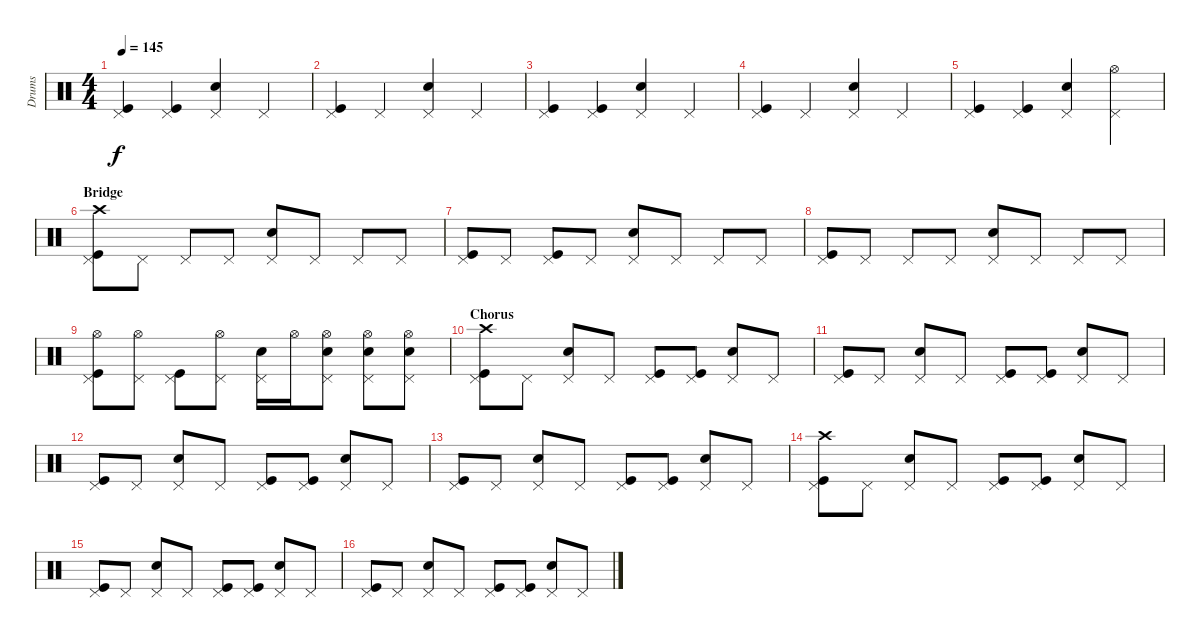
\track ("Drums" "Drums") {instrument percussion}
\staff {score}
\articulation defaults
\ts (4 4)
\tempo 145
\clef neutral
\ks c
("Pedal Hi-Hat (hit)" "Kick (hit)").4{dy f} ("Pedal Hi-Hat (hit)" "Kick (hit)").4 ("Pedal Hi-Hat (hit)" "Snare (hit) 2").4 "Pedal Hi-Hat (hit)".4 |
("Pedal Hi-Hat (hit)" "Kick (hit)").4 "Pedal Hi-Hat (hit)".4 ("Pedal Hi-Hat (hit)" "Snare (hit) 2").4 "Pedal Hi-Hat (hit)".4 |
("Pedal Hi-Hat (hit)" "Kick (hit)").4 ("Pedal Hi-Hat (hit)" "Kick (hit)").4 ("Pedal Hi-Hat (hit)" "Snare (hit) 2").4 "Pedal Hi-Hat (hit)".4 |
("Pedal Hi-Hat (hit)" "Kick (hit)").4 "Pedal Hi-Hat (hit)".4 ("Pedal Hi-Hat (hit)" "Snare (hit) 2").4 "Pedal Hi-Hat (hit)".4 |
("Pedal Hi-Hat (hit)" "Kick (hit)").4 ("Pedal Hi-Hat (hit)" "Kick (hit)").4 ("Pedal Hi-Hat (hit)" "Snare (hit) 2").4 ("Pedal Hi-Hat (hit)" "Hi-Hat (open)").4 |
\section ("" "Bridge")
("Crash high (hit)" "Pedal Hi-Hat (hit)" "Kick (hit)").8 "Pedal Hi-Hat (hit)".8 "Pedal Hi-Hat (hit)".8 "Pedal Hi-Hat (hit)".8 ("Pedal Hi-Hat (hit)" "Snare (hit) 2").8 "Pedal Hi-Hat (hit)".8 "Pedal Hi-Hat (hit)".8 "Pedal Hi-Hat (hit)".8 |
("Pedal Hi-Hat (hit)" "Kick (hit)").8 "Pedal Hi-Hat (hit)".8 ("Pedal Hi-Hat (hit)" "Kick (hit)").8 "Pedal Hi-Hat (hit)".8 ("Pedal Hi-Hat (hit)" "Snare (hit) 2").8 "Pedal Hi-Hat (hit)".8 "Pedal Hi-Hat (hit)".8 "Pedal Hi-Hat (hit)".8 |
("Pedal Hi-Hat (hit)" "Kick (hit)").8 "Pedal Hi-Hat (hit)".8 "Pedal Hi-Hat (hit)".8 "Pedal Hi-Hat (hit)".8 ("Pedal Hi-Hat (hit)" "Snare (hit) 2").8 "Pedal Hi-Hat (hit)".8 "Pedal Hi-Hat (hit)".8 "Pedal Hi-Hat (hit)".8 |
("Pedal Hi-Hat (hit)" "Hi-Hat (open)" "Kick (hit)").8 ("Pedal Hi-Hat (hit)" "Hi-Hat (open)").8 ("Pedal Hi-Hat (hit)" "Kick (hit)").8 ("Pedal Hi-Hat (hit)" "Hi-Hat (open)").8 ("Pedal Hi-Hat (hit)" "Snare (hit) 2").16 "Hi-Hat (open)".16 ("Pedal Hi-Hat (hit)" "Snare (hit) 2" "Hi-Hat (open)").8 ("Pedal Hi-Hat (hit)" "Snare (hit) 2" "Hi-Hat (open)").8 ("Pedal Hi-Hat (hit)" "Snare (hit) 2" "Hi-Hat (open)").8 |
\section ("" "Chorus")
("Crash high (hit)" "Pedal Hi-Hat (hit)" "Kick (hit)").8 "Pedal Hi-Hat (hit)".8 ("Pedal Hi-Hat (hit)" "Snare (hit) 2").8 "Pedal Hi-Hat (hit)".8 ("Pedal Hi-Hat (hit)" "Kick (hit)").8 ("Pedal Hi-Hat (hit)" "Kick (hit)").8 ("Pedal Hi-Hat (hit)" "Snare (hit) 2").8 "Pedal Hi-Hat (hit)".8 |
("Pedal Hi-Hat (hit)" "Kick (hit)").8 "Pedal Hi-Hat (hit)".8 ("Pedal Hi-Hat (hit)" "Snare (hit) 2").8 "Pedal Hi-Hat (hit)".8 ("Pedal Hi-Hat (hit)" "Kick (hit)").8 ("Pedal Hi-Hat (hit)" "Kick (hit)").8 ("Pedal Hi-Hat (hit)" "Snare (hit) 2").8 "Pedal Hi-Hat (hit)".8 |
("Pedal Hi-Hat (hit)" "Kick (hit)").8 "Pedal Hi-Hat (hit)".8 ("Pedal Hi-Hat (hit)" "Snare (hit) 2").8 "Pedal Hi-Hat (hit)".8 ("Pedal Hi-Hat (hit)" "Kick (hit)").8 ("Pedal Hi-Hat (hit)" "Kick (hit)").8 ("Pedal Hi-Hat (hit)" "Snare (hit) 2").8 "Pedal Hi-Hat (hit)".8 |
("Pedal Hi-Hat (hit)" "Kick (hit)").8 "Pedal Hi-Hat (hit)".8 ("Pedal Hi-Hat (hit)" "Snare (hit) 2").8 "Pedal Hi-Hat (hit)".8 ("Pedal Hi-Hat (hit)" "Kick (hit)").8 ("Pedal Hi-Hat (hit)" "Kick (hit)").8 ("Pedal Hi-Hat (hit)" "Snare (hit) 2").8 "Pedal Hi-Hat (hit)".8 |
("Crash high (hit)" "Pedal Hi-Hat (hit)" "Kick (hit)").8 "Pedal Hi-Hat (hit)".8 ("Pedal Hi-Hat (hit)" "Snare (hit) 2").8 "Pedal Hi-Hat (hit)".8 ("Pedal Hi-Hat (hit)" "Kick (hit)").8 ("Pedal Hi-Hat (hit)" "Kick (hit)").8 ("Pedal Hi-Hat (hit)" "Snare (hit) 2").8 "Pedal Hi-Hat (hit)".8 |
("Pedal Hi-Hat (hit)" "Kick (hit)").8 "Pedal Hi-Hat (hit)".8 ("Pedal Hi-Hat (hit)" "Snare (hit) 2").8 "Pedal Hi-Hat (hit)".8 ("Pedal Hi-Hat (hit)" "Kick (hit)").8 ("Pedal Hi-Hat (hit)" "Kick (hit)").8 ("Pedal Hi-Hat (hit)" "Snare (hit) 2").8 "Pedal Hi-Hat (hit)".8 |
("Pedal Hi-Hat (hit)" "Kick (hit)").8 "Pedal Hi-Hat (hit)".8 ("Pedal Hi-Hat (hit)" "Snare (hit) 2").8 "Pedal Hi-Hat (hit)".8 ("Pedal Hi-Hat (hit)" "Kick (hit)").8 ("Pedal Hi-Hat (hit)" "Kick (hit)").8 ("Pedal Hi-Hat (hit)" "Snare (hit) 2").8 "Pedal Hi-Hat (hit)".8
